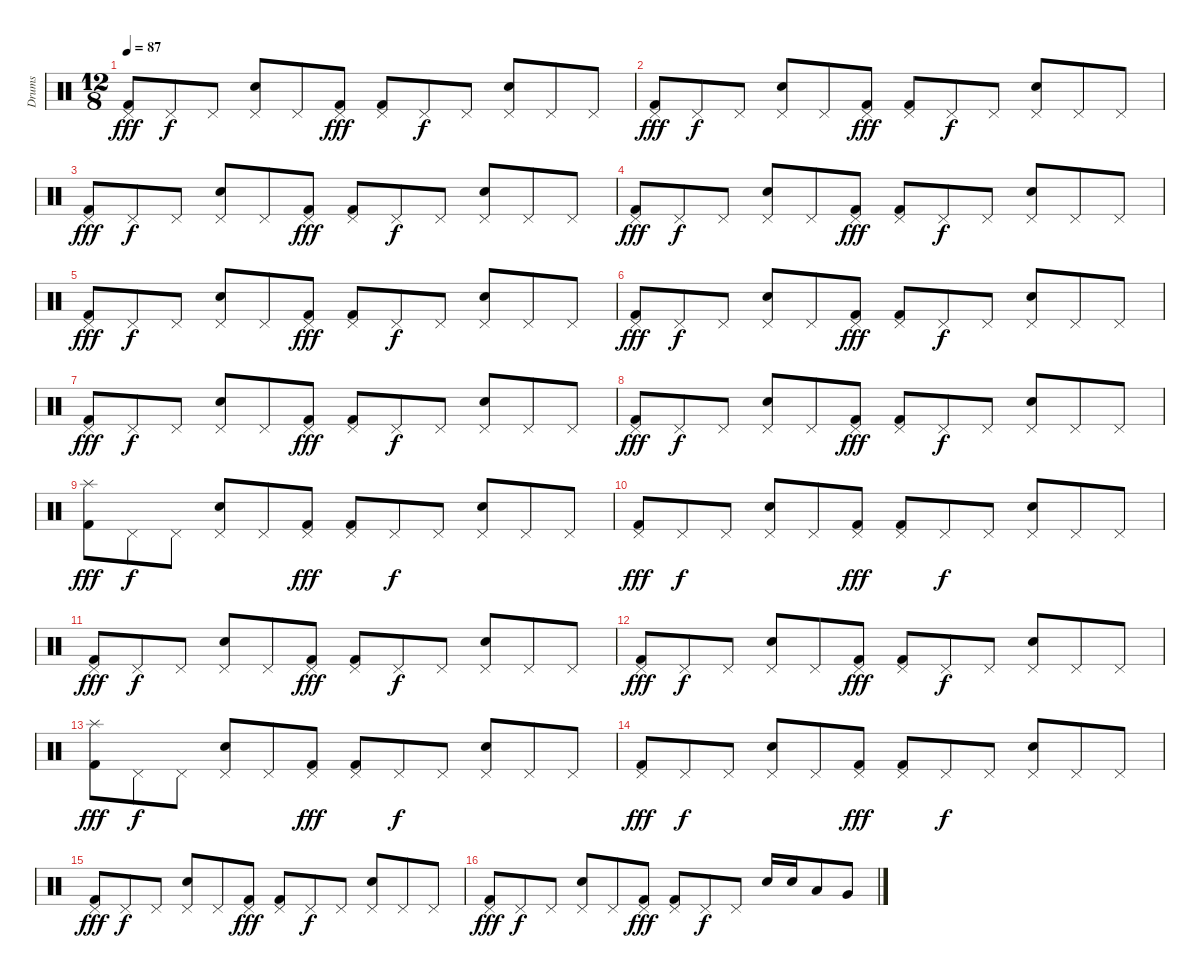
\track ("Drums" "Drums") {instrument percussion}
\staff {score}
\articulation defaults
\ts (12 8)
\tempo 87
\clef neutral
\ks c
("Pedal Hi-Hat (hit)" "Kick (hit) 2").8{dy fff} "Pedal Hi-Hat (hit)".8{dy f} "Pedal Hi-Hat (hit)".8 ("Pedal Hi-Hat (hit)" "Snare (hit) 2").8 "Pedal Hi-Hat (hit)".8 ("Pedal Hi-Hat (hit)" "Kick (hit) 2").8{dy fff} ("Pedal Hi-Hat (hit)" "Kick (hit) 2").8 "Pedal Hi-Hat (hit)".8{dy f} "Pedal Hi-Hat (hit)".8 ("Pedal Hi-Hat (hit)" "Snare (hit) 2").8 "Pedal Hi-Hat (hit)".8 "Pedal Hi-Hat (hit)".8 |
("Pedal Hi-Hat (hit)" "Kick (hit) 2").8{dy fff} "Pedal Hi-Hat (hit)".8{dy f} "Pedal Hi-Hat (hit)".8 ("Pedal Hi-Hat (hit)" "Snare (hit) 2").8 "Pedal Hi-Hat (hit)".8 ("Pedal Hi-Hat (hit)" "Kick (hit) 2").8{dy fff} ("Pedal Hi-Hat (hit)" "Kick (hit) 2").8 "Pedal Hi-Hat (hit)".8{dy f} "Pedal Hi-Hat (hit)".8 ("Pedal Hi-Hat (hit)" "Snare (hit) 2").8 "Pedal Hi-Hat (hit)".8 "Pedal Hi-Hat (hit)".8 |
("Pedal Hi-Hat (hit)" "Kick (hit) 2").8{dy fff} "Pedal Hi-Hat (hit)".8{dy f} "Pedal Hi-Hat (hit)".8 ("Pedal Hi-Hat (hit)" "Snare (hit) 2").8 "Pedal Hi-Hat (hit)".8 ("Pedal Hi-Hat (hit)" "Kick (hit) 2").8{dy fff} ("Pedal Hi-Hat (hit)" "Kick (hit) 2").8 "Pedal Hi-Hat (hit)".8{dy f} "Pedal Hi-Hat (hit)".8 ("Pedal Hi-Hat (hit)" "Snare (hit) 2").8 "Pedal Hi-Hat (hit)".8 "Pedal Hi-Hat (hit)".8 |
("Pedal Hi-Hat (hit)" "Kick (hit) 2").8{dy fff} "Pedal Hi-Hat (hit)".8{dy f} "Pedal Hi-Hat (hit)".8 ("Pedal Hi-Hat (hit)" "Snare (hit) 2").8 "Pedal Hi-Hat (hit)".8 ("Pedal Hi-Hat (hit)" "Kick (hit) 2").8{dy fff} ("Pedal Hi-Hat (hit)" "Kick (hit) 2").8 "Pedal Hi-Hat (hit)".8{dy f} "Pedal Hi-Hat (hit)".8 ("Pedal Hi-Hat (hit)" "Snare (hit) 2").8 "Pedal Hi-Hat (hit)".8 "Pedal Hi-Hat (hit)".8 |
("Pedal Hi-Hat (hit)" "Kick (hit) 2").8{dy fff} "Pedal Hi-Hat (hit)".8{dy f} "Pedal Hi-Hat (hit)".8 ("Pedal Hi-Hat (hit)" "Snare (hit) 2").8 "Pedal Hi-Hat (hit)".8 ("Pedal Hi-Hat (hit)" "Kick (hit) 2").8{dy fff} ("Pedal Hi-Hat (hit)" "Kick (hit) 2").8 "Pedal Hi-Hat (hit)".8{dy f} "Pedal Hi-Hat (hit)".8 ("Pedal Hi-Hat (hit)" "Snare (hit) 2").8 "Pedal Hi-Hat (hit)".8 "Pedal Hi-Hat (hit)".8 |
("Pedal Hi-Hat (hit)" "Kick (hit) 2").8{dy fff} "Pedal Hi-Hat (hit)".8{dy f} "Pedal Hi-Hat (hit)".8 ("Pedal Hi-Hat (hit)" "Snare (hit) 2").8 "Pedal Hi-Hat (hit)".8 ("Pedal Hi-Hat (hit)" "Kick (hit) 2").8{dy fff} ("Pedal Hi-Hat (hit)" "Kick (hit) 2").8 "Pedal Hi-Hat (hit)".8{dy f} "Pedal Hi-Hat (hit)".8 ("Pedal Hi-Hat (hit)" "Snare (hit) 2").8 "Pedal Hi-Hat (hit)".8 "Pedal Hi-Hat (hit)".8 |
("Pedal Hi-Hat (hit)" "Kick (hit) 2").8{dy fff} "Pedal Hi-Hat (hit)".8{dy f} "Pedal Hi-Hat (hit)".8 ("Pedal Hi-Hat (hit)" "Snare (hit) 2").8 "Pedal Hi-Hat (hit)".8 ("Pedal Hi-Hat (hit)" "Kick (hit) 2").8{dy fff} ("Pedal Hi-Hat (hit)" "Kick (hit) 2").8 "Pedal Hi-Hat (hit)".8{dy f} "Pedal Hi-Hat (hit)".8 ("Pedal Hi-Hat (hit)" "Snare (hit) 2").8 "Pedal Hi-Hat (hit)".8 "Pedal Hi-Hat (hit)".8 |
("Pedal Hi-Hat (hit)" "Kick (hit) 2").8{dy fff} "Pedal Hi-Hat (hit)".8{dy f} "Pedal Hi-Hat (hit)".8 ("Pedal Hi-Hat (hit)" "Snare (hit) 2").8 "Pedal Hi-Hat (hit)".8 ("Pedal Hi-Hat (hit)" "Kick (hit) 2").8{dy fff} ("Pedal Hi-Hat (hit)" "Kick (hit) 2").8 "Pedal Hi-Hat (hit)".8{dy f} "Pedal Hi-Hat (hit)".8 ("Pedal Hi-Hat (hit)" "Snare (hit) 2").8 "Pedal Hi-Hat (hit)".8 "Pedal Hi-Hat (hit)".8 |
("Splash (hit)" "Kick (hit) 2").8{dy fff} "Pedal Hi-Hat (hit)".8{dy f} "Pedal Hi-Hat (hit)".8 ("Pedal Hi-Hat (hit)" "Snare (hit) 2").8 "Pedal Hi-Hat (hit)".8 ("Pedal Hi-Hat (hit)" "Kick (hit) 2").8{dy fff} ("Pedal Hi-Hat (hit)" "Kick (hit) 2").8 "Pedal Hi-Hat (hit)".8{dy f} "Pedal Hi-Hat (hit)".8 ("Pedal Hi-Hat (hit)" "Snare (hit) 2").8 "Pedal Hi-Hat (hit)".8 "Pedal Hi-Hat (hit)".8 |
("Pedal Hi-Hat (hit)" "Kick (hit) 2").8{dy fff} "Pedal Hi-Hat (hit)".8{dy f} "Pedal Hi-Hat (hit)".8 ("Pedal Hi-Hat (hit)" "Snare (hit) 2").8 "Pedal Hi-Hat (hit)".8 ("Pedal Hi-Hat (hit)" "Kick (hit) 2").8{dy fff} ("Pedal Hi-Hat (hit)" "Kick (hit) 2").8 "Pedal Hi-Hat (hit)".8{dy f} "Pedal Hi-Hat (hit)".8 ("Pedal Hi-Hat (hit)" "Snare (hit) 2").8 "Pedal Hi-Hat (hit)".8 "Pedal Hi-Hat (hit)".8 |
("Pedal Hi-Hat (hit)" "Kick (hit) 2").8{dy fff} "Pedal Hi-Hat (hit)".8{dy f} "Pedal Hi-Hat (hit)".8 ("Pedal Hi-Hat (hit)" "Snare (hit) 2").8 "Pedal Hi-Hat (hit)".8 ("Pedal Hi-Hat (hit)" "Kick (hit) 2").8{dy fff} ("Pedal Hi-Hat (hit)" "Kick (hit) 2").8 "Pedal Hi-Hat (hit)".8{dy f} "Pedal Hi-Hat (hit)".8 ("Pedal Hi-Hat (hit)" "Snare (hit) 2").8 "Pedal Hi-Hat (hit)".8 "Pedal Hi-Hat (hit)".8 |
("Pedal Hi-Hat (hit)" "Kick (hit) 2").8{dy fff} "Pedal Hi-Hat (hit)".8{dy f} "Pedal Hi-Hat (hit)".8 ("Pedal Hi-Hat (hit)" "Snare (hit) 2").8 "Pedal Hi-Hat (hit)".8 ("Pedal Hi-Hat (hit)" "Kick (hit) 2").8{dy fff} ("Pedal Hi-Hat (hit)" "Kick (hit) 2").8 "Pedal Hi-Hat (hit)".8{dy f} "Pedal Hi-Hat (hit)".8 ("Pedal Hi-Hat (hit)" "Snare (hit) 2").8 "Pedal Hi-Hat (hit)".8 "Pedal Hi-Hat (hit)".8 |
("Splash (hit)" "Kick (hit) 2").8{dy fff} "Pedal Hi-Hat (hit)".8{dy f} "Pedal Hi-Hat (hit)".8 ("Pedal Hi-Hat (hit)" "Snare (hit) 2").8 "Pedal Hi-Hat (hit)".8 ("Pedal Hi-Hat (hit)" "Kick (hit) 2").8{dy fff} ("Pedal Hi-Hat (hit)" "Kick (hit) 2").8 "Pedal Hi-Hat (hit)".8{dy f} "Pedal Hi-Hat (hit)".8 ("Pedal Hi-Hat (hit)" "Snare (hit) 2").8 "Pedal Hi-Hat (hit)".8 "Pedal Hi-Hat (hit)".8 |
("Pedal Hi-Hat (hit)" "Kick (hit) 2").8{dy fff} "Pedal Hi-Hat (hit)".8{dy f} "Pedal Hi-Hat (hit)".8 ("Pedal Hi-Hat (hit)" "Snare (hit) 2").8 "Pedal Hi-Hat (hit)".8 ("Pedal Hi-Hat (hit)" "Kick (hit) 2").8{dy fff} ("Pedal Hi-Hat (hit)" "Kick (hit) 2").8 "Pedal Hi-Hat (hit)".8{dy f} "Pedal Hi-Hat (hit)".8 ("Pedal Hi-Hat (hit)" "Snare (hit) 2").8 "Pedal Hi-Hat (hit)".8 "Pedal Hi-Hat (hit)".8 |
("Pedal Hi-Hat (hit)" "Kick (hit) 2").8{dy fff} "Pedal Hi-Hat (hit)".8{dy f} "Pedal Hi-Hat (hit)".8 ("Pedal Hi-Hat (hit)" "Snare (hit) 2").8 "Pedal Hi-Hat (hit)".8 ("Pedal Hi-Hat (hit)" "Kick (hit) 2").8{dy fff} ("Pedal Hi-Hat (hit)" "Kick (hit) 2").8 "Pedal Hi-Hat (hit)".8{dy f} "Pedal Hi-Hat (hit)".8 ("Pedal Hi-Hat (hit)" "Snare (hit) 2").8 "Pedal Hi-Hat (hit)".8 "Pedal Hi-Hat (hit)".8 |
("Pedal Hi-Hat (hit)" "Kick (hit) 2").8{dy fff} "Pedal Hi-Hat (hit)".8{dy f} "Pedal Hi-Hat (hit)".8 ("Pedal Hi-Hat (hit)" "Snare (hit) 2").8 "Pedal Hi-Hat (hit)".8 ("Pedal Hi-Hat (hit)" "Kick (hit) 2").8{dy fff} ("Pedal Hi-Hat (hit)" "Kick (hit) 2").8 "Pedal Hi-Hat (hit)".8{dy f} "Pedal Hi-Hat (hit)".8 "Snare (hit) 2".16 "Snare (hit) 2".16 "Low Tom (hit)".8 "Very Low Tom (hit)".8
